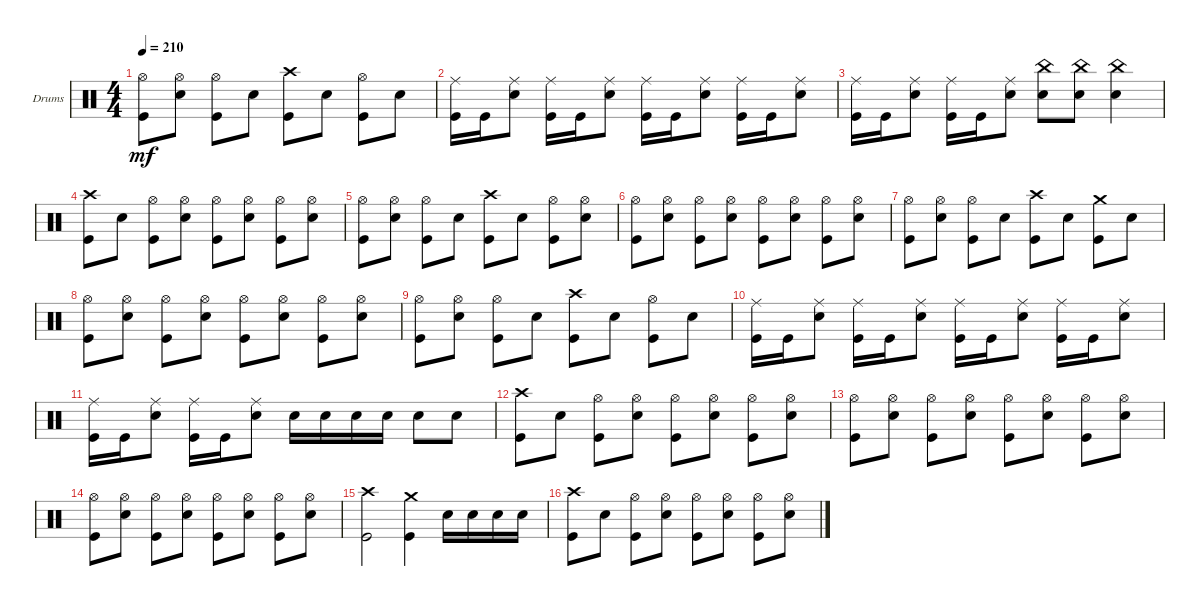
\bracketExtendMode groupsimilarinstruments
\firstSystemTrackNameOrientation horizontal
\otherSystemsTrackNameOrientation horizontal
\track ("Drumkit" "Drums") {instrument percussion}
\staff {score}
\articulation defaults
\ts (4 4)
\tempo 210
\clef neutral
\ks c
("Hi-Hat (open)" "Kick (hit)").8{dy mf} ("Hi-Hat (open)" "Snare (hit) 2").8 ("Hi-Hat (open)" "Kick (hit)").8 "Snare (hit) 2".8 ("Kick (hit)" "Crash high (hit)").8 "Snare (hit) 2".8 ("Hi-Hat (open)" "Kick (hit)").8 "Snare (hit) 2".8 |
("Kick (hit)" "Ride (middle)").16 "Kick (hit)".16 ("Snare (hit) 2" "Ride (middle)").8 ("Kick (hit)" "Ride (middle)").16 "Kick (hit)".16 ("Snare (hit) 2" "Ride (middle)").8 ("Kick (hit)" "Ride (middle)").16 "Kick (hit)".16 ("Snare (hit) 2" "Ride (middle)").8 ("Kick (hit)" "Ride (middle)").16 "Kick (hit)".16 ("Snare (hit) 2" "Ride (middle)").8 |
("Kick (hit)" "Ride (middle)").16 "Kick (hit)".16 ("Snare (hit) 2" "Ride (middle)").8 ("Kick (hit)" "Ride (middle)").16 "Kick (hit)".16 ("Snare (hit) 2" "Ride (middle)").8 ("Snare (hit) 2" "China (hit)").8 ("Snare (hit) 2" "China (hit)").8 ("Snare (hit) 2" "China (hit)").4 |
("Kick (hit)" "Crash high (hit)").8 "Snare (hit) 2".8 ("Hi-Hat (open)" "Kick (hit)").8 ("Hi-Hat (open)" "Snare (hit) 2").8 ("Hi-Hat (open)" "Kick (hit)").8 ("Hi-Hat (open)" "Snare (hit) 2").8 ("Hi-Hat (open)" "Kick (hit)").8 ("Hi-Hat (open)" "Snare (hit) 2").8 |
("Hi-Hat (open)" "Kick (hit)").8 ("Hi-Hat (open)" "Snare (hit) 2").8 ("Hi-Hat (open)" "Kick (hit)").8 "Snare (hit) 2".8 ("Kick (hit)" "Crash high (hit)").8 "Snare (hit) 2".8 ("Hi-Hat (open)" "Kick (hit)").8 ("Hi-Hat (open)" "Snare (hit) 2").8 |
("Hi-Hat (open)" "Kick (hit)").8 ("Hi-Hat (open)" "Snare (hit) 2").8 ("Hi-Hat (open)" "Kick (hit)").8 ("Hi-Hat (open)" "Snare (hit) 2").8 ("Hi-Hat (open)" "Kick (hit)").8 ("Hi-Hat (open)" "Snare (hit) 2").8 ("Hi-Hat (open)" "Kick (hit)").8 ("Hi-Hat (open)" "Snare (hit) 2").8 |
("Hi-Hat (open)" "Kick (hit)").8 ("Hi-Hat (open)" "Snare (hit) 2").8 ("Hi-Hat (open)" "Kick (hit)").8 "Snare (hit) 2".8 ("Kick (hit)" "Crash high (hit)").8 "Snare (hit) 2".8 ("Kick (hit)" "Crash medium (hit)").8 "Snare (hit) 2".8 |
("Hi-Hat (open)" "Kick (hit)").8 ("Hi-Hat (open)" "Snare (hit) 2").8 ("Hi-Hat (open)" "Kick (hit)").8 ("Hi-Hat (open)" "Snare (hit) 2").8 ("Hi-Hat (open)" "Kick (hit)").8 ("Hi-Hat (open)" "Snare (hit) 2").8 ("Hi-Hat (open)" "Kick (hit)").8 ("Hi-Hat (open)" "Snare (hit) 2").8 |
("Hi-Hat (open)" "Kick (hit)").8 ("Hi-Hat (open)" "Snare (hit) 2").8 ("Hi-Hat (open)" "Kick (hit)").8 "Snare (hit) 2".8 ("Kick (hit)" "Crash high (hit)").8 "Snare (hit) 2".8 ("Hi-Hat (open)" "Kick (hit)").8 "Snare (hit) 2".8 |
("Kick (hit)" "Ride (middle)").16 "Kick (hit)".16 ("Snare (hit) 2" "Ride (middle)").8 ("Kick (hit)" "Ride (middle)").16 "Kick (hit)".16 ("Snare (hit) 2" "Ride (middle)").8 ("Kick (hit)" "Ride (middle)").16 "Kick (hit)".16 ("Snare (hit) 2" "Ride (middle)").8 ("Kick (hit)" "Ride (middle)").16 "Kick (hit)".16 ("Snare (hit) 2" "Ride (middle)").8 |
("Kick (hit)" "Ride (middle)").16 "Kick (hit)".16 ("Snare (hit) 2" "Ride (middle)").8 ("Kick (hit)" "Ride (middle)").16 "Kick (hit)".16 ("Snare (hit) 2" "Ride (middle)").8 "Snare (hit) 2".16 "Snare (hit) 2".16 "Snare (hit) 2".16 "Snare (hit) 2".16 "Snare (hit) 2".8 "Snare (hit) 2".8 |
("Kick (hit)" "Crash high (hit)").8 "Snare (hit) 2".8 ("Hi-Hat (open)" "Kick (hit)").8 ("Hi-Hat (open)" "Snare (hit) 2").8 ("Hi-Hat (open)" "Kick (hit)").8 ("Hi-Hat (open)" "Snare (hit) 2").8 ("Hi-Hat (open)" "Kick (hit)").8 ("Hi-Hat (open)" "Snare (hit) 2").8 |
("Hi-Hat (open)" "Kick (hit)").8 ("Hi-Hat (open)" "Snare (hit) 2").8 ("Hi-Hat (open)" "Kick (hit)").8 ("Hi-Hat (open)" "Snare (hit) 2").8 ("Hi-Hat (open)" "Kick (hit)").8 ("Hi-Hat (open)" "Snare (hit) 2").8 ("Hi-Hat (open)" "Kick (hit)").8 ("Hi-Hat (open)" "Snare (hit) 2").8 |
("Hi-Hat (open)" "Kick (hit)").8 ("Hi-Hat (open)" "Snare (hit) 2").8 ("Hi-Hat (open)" "Kick (hit)").8 ("Hi-Hat (open)" "Snare (hit) 2").8 ("Hi-Hat (open)" "Kick (hit)").8 ("Hi-Hat (open)" "Snare (hit) 2").8 ("Hi-Hat (open)" "Kick (hit)").8 ("Hi-Hat (open)" "Snare (hit) 2").8 |
("Kick (hit)" "Crash high (hit)").2 ("Kick (hit)" "Crash medium (hit)").4 "Snare (hit) 2".16 "Snare (hit) 2".16 "Snare (hit) 2".16 "Snare (hit) 2".16 |
("Kick (hit)" "Crash high (hit)").8 "Snare (hit) 2".8 ("Hi-Hat (open)" "Kick (hit)").8 ("Hi-Hat (open)" "Snare (hit) 2").8 ("Hi-Hat (open)" "Kick (hit)").8 ("Hi-Hat (open)" "Snare (hit) 2").8 ("Hi-Hat (open)" "Kick (hit)").8 ("Hi-Hat (open)" "Snare (hit) 2").8
